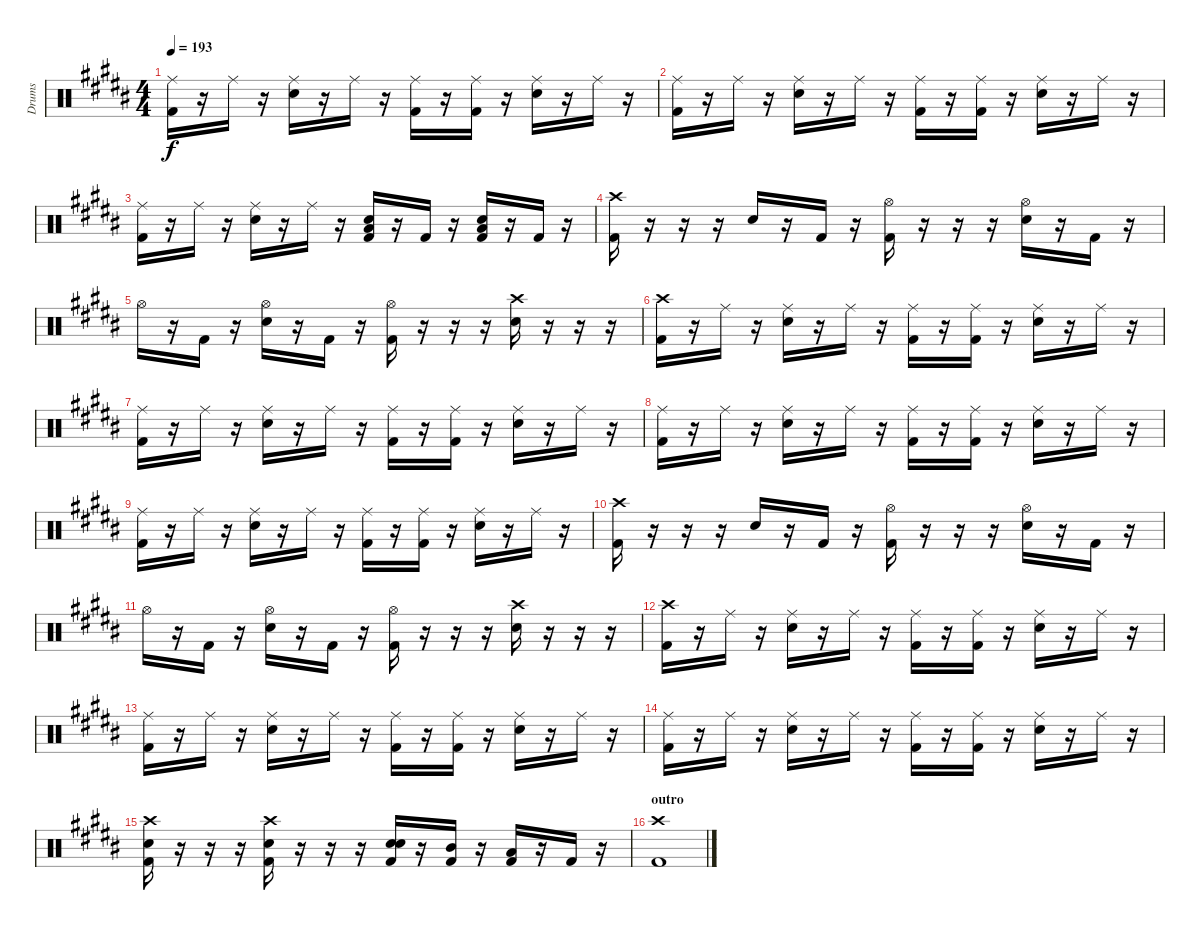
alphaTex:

\track ("Drums" "Drums") {instrument percussion}
\staff {score}
\articulation defaults
\ts (4 4)
\tempo 193
\clef neutral
\ks b
("Ride (middle)" "Kick (hit) 2").16{dy f} r.16 "Ride (middle)".16 r.16 ("Electric Snare (hit)" "Ride (middle)").16 r.16 "Ride (middle)".16 r.16 ("Ride (middle)" "Kick (hit) 2").16 r.16 ("Ride (middle)" "Kick (hit) 2").16 r.16 ("Electric Snare (hit)" "Ride (middle)").16 r.16 "Ride (middle)".16 r.16 |
("Ride (middle)" "Kick (hit) 2").16 r.16 "Ride (middle)".16 r.16 ("Electric Snare (hit)" "Ride (middle)").16 r.16 "Ride (middle)".16 r.16 ("Ride (middle)" "Kick (hit) 2").16 r.16 ("Ride (middle)" "Kick (hit) 2").16 r.16 ("Electric Snare (hit)" "Ride (middle)").16 r.16 "Ride (middle)".16 r.16 |
("Ride (middle)" "Kick (hit) 2").16 r.16 "Ride (middle)".16 r.16 ("Electric Snare (hit)" "Ride (middle)").16 r.16 "Ride (middle)".16 r.16 ("Electric Snare (hit)" "Low Tom (hit)" "Kick (hit) 2").16 r.16 "Kick (hit) 2".16 r.16 ("Electric Snare (hit)" "Low Tom (hit)" "Kick (hit) 2").16 r.16 "Kick (hit) 2".16 r.16 |
("Crash high (hit)" "Kick (hit) 2").16 r.16 r.16 r.16 "Electric Snare (hit)".16 r.16 "Kick (hit) 2".16 r.16 ("Hi-Hat (open)" "Kick (hit) 2").16 r.16 r.16 r.16 ("Electric Snare (hit)" "Hi-Hat (open)").16 r.16 "Kick (hit) 2".16 r.16 |
"Hi-Hat (open)".16 r.16 "Kick (hit) 2".16 r.16 ("Electric Snare (hit)" "Hi-Hat (open)").16 r.16 "Kick (hit) 2".16 r.16 ("Hi-Hat (open)" "Kick (hit) 2").16 r.16 r.16 r.16 ("Electric Snare (hit)" "Crash high (hit)").16 r.16 r.16 r.16 |
("Crash high (hit)" "Kick (hit) 2").16 r.16 "Ride (middle)".16 r.16 ("Electric Snare (hit)" "Ride (middle)").16 r.16 "Ride (middle)".16 r.16 ("Ride (middle)" "Kick (hit) 2").16 r.16 ("Ride (middle)" "Kick (hit) 2").16 r.16 ("Electric Snare (hit)" "Ride (middle)").16 r.16 "Ride (middle)".16 r.16 |
("Ride (middle)" "Kick (hit) 2").16 r.16 "Ride (middle)".16 r.16 ("Electric Snare (hit)" "Ride (middle)").16 r.16 "Ride (middle)".16 r.16 ("Ride (middle)" "Kick (hit) 2").16 r.16 ("Ride (middle)" "Kick (hit) 2").16 r.16 ("Electric Snare (hit)" "Ride (middle)").16 r.16 "Ride (middle)".16 r.16 |
("Ride (middle)" "Kick (hit) 2").16 r.16 "Ride (middle)".16 r.16 ("Electric Snare (hit)" "Ride (middle)").16 r.16 "Ride (middle)".16 r.16 ("Ride (middle)" "Kick (hit) 2").16 r.16 ("Ride (middle)" "Kick (hit) 2").16 r.16 ("Electric Snare (hit)" "Ride (middle)").16 r.16 "Ride (middle)".16 r.16 |
("Ride (middle)" "Kick (hit) 2").16 r.16 "Ride (middle)".16 r.16 ("Electric Snare (hit)" "Ride (middle)").16 r.16 "Ride (middle)".16 r.16 ("Ride (middle)" "Kick (hit) 2").16 r.16 ("Ride (middle)" "Kick (hit) 2").16 r.16 ("Electric Snare (hit)" "Ride (middle)").16 r.16 "Ride (middle)".16 r.16 |
("Crash high (hit)" "Kick (hit) 2").16 r.16 r.16 r.16 "Electric Snare (hit)".16 r.16 "Kick (hit) 2".16 r.16 ("Hi-Hat (open)" "Kick (hit) 2").16 r.16 r.16 r.16 ("Electric Snare (hit)" "Hi-Hat (open)").16 r.16 "Kick (hit) 2".16 r.16 |
"Hi-Hat (open)".16 r.16 "Kick (hit) 2".16 r.16 ("Electric Snare (hit)" "Hi-Hat (open)").16 r.16 "Kick (hit) 2".16 r.16 ("Hi-Hat (open)" "Kick (hit) 2").16 r.16 r.16 r.16 ("Electric Snare (hit)" "Crash high (hit)").16 r.16 r.16 r.16 |
("Crash high (hit)" "Kick (hit) 2").16 r.16 "Ride (middle)".16 r.16 ("Electric Snare (hit)" "Ride (middle)").16 r.16 "Ride (middle)".16 r.16 ("Ride (middle)" "Kick (hit) 2").16 r.16 ("Ride (middle)" "Kick (hit) 2").16 r.16 ("Electric Snare (hit)" "Ride (middle)").16 r.16 "Ride (middle)".16 r.16 |
("Ride (middle)" "Kick (hit) 2").16 r.16 "Ride (middle)".16 r.16 ("Electric Snare (hit)" "Ride (middle)").16 r.16 "Ride (middle)".16 r.16 ("Ride (middle)" "Kick (hit) 2").16 r.16 ("Ride (middle)" "Kick (hit) 2").16 r.16 ("Electric Snare (hit)" "Ride (middle)").16 r.16 "Ride (middle)".16 r.16 |
("Ride (middle)" "Kick (hit) 2").16 r.16 "Ride (middle)".16 r.16 ("Electric Snare (hit)" "Ride (middle)").16 r.16 "Ride (middle)".16 r.16 ("Ride (middle)" "Kick (hit) 2").16 r.16 ("Ride (middle)" "Kick (hit) 2").16 r.16 ("Electric Snare (hit)" "Ride (middle)").16 r.16 "Ride (middle)".16 r.16 |
("Electric Snare (hit)" "Crash high (hit)" "Kick (hit) 2").16 r.16 r.16 r.16 ("Electric Snare (hit)" "Crash high (hit)" "Kick (hit) 2").16 r.16 r.16 r.16 ("Electric Snare (hit)" "Electric Snare (hit)" "Kick (hit) 2").16 r.16 ("Mid Tom (hit)" "Kick (hit) 2").16 r.16 ("Low Tom (hit)" "Kick (hit) 2").16 r.16 "Kick (hit) 2".16 r.16 |
\section ("" "outro")
("Crash high (hit)" "Kick (hit) 2").1
